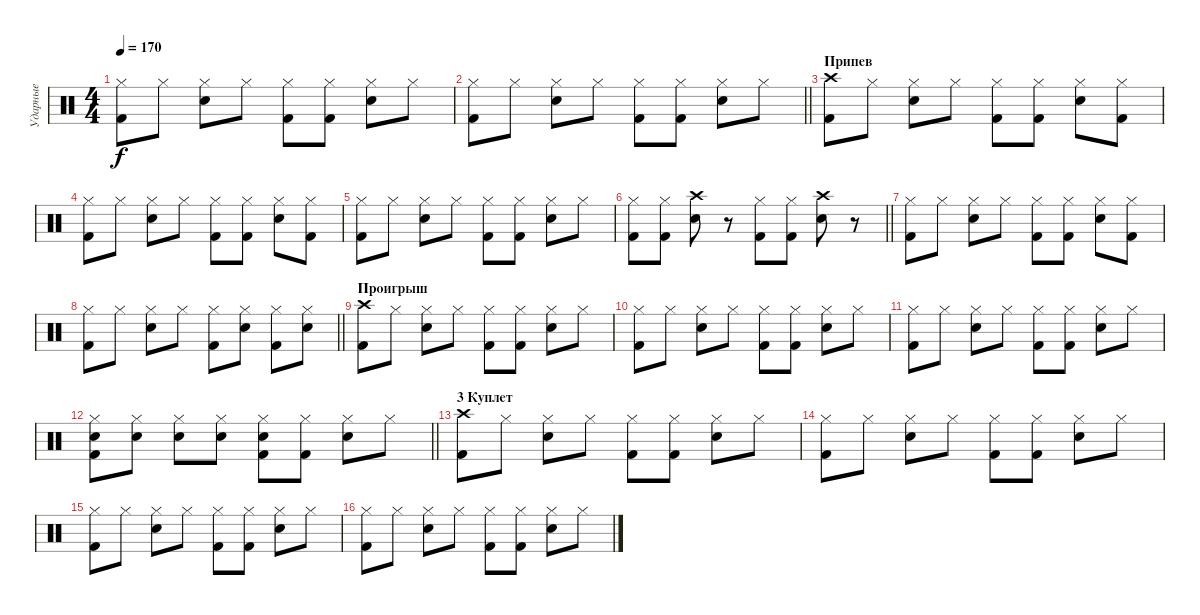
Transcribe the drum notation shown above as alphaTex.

\track ("Ударные" "Ударные") {instrument percussion}
\staff {score}
\articulation defaults
\ts (4 4)
\tempo 170
\clef neutral
\ks c
("Hi-Hat (closed)" "Kick (hit) 2").8{dy f} "Hi-Hat (closed)".8 ("Hi-Hat (closed)" "Snare (hit) 2").8 "Hi-Hat (closed)".8 ("Hi-Hat (closed)" "Kick (hit) 2").8 ("Hi-Hat (closed)" "Kick (hit) 2").8 ("Hi-Hat (closed)" "Snare (hit) 2").8 "Hi-Hat (closed)".8 |
\barLineRight lightlight
("Hi-Hat (closed)" "Kick (hit) 2").8 "Hi-Hat (closed)".8 ("Hi-Hat (closed)" "Snare (hit) 2").8 "Hi-Hat (closed)".8 ("Hi-Hat (closed)" "Kick (hit) 2").8 ("Hi-Hat (closed)" "Kick (hit) 2").8 ("Hi-Hat (closed)" "Snare (hit) 2").8 "Hi-Hat (closed)".8 |
\section ("" "Припев")
("Crash high (hit)" "Kick (hit) 2").8 "Hi-Hat (closed)".8 ("Hi-Hat (closed)" "Snare (hit) 2").8 "Hi-Hat (closed)".8 ("Hi-Hat (closed)" "Kick (hit) 2").8 ("Hi-Hat (closed)" "Kick (hit) 2").8 ("Hi-Hat (closed)" "Snare (hit) 2").8 ("Hi-Hat (closed)" "Kick (hit) 2").8 |
("Hi-Hat (closed)" "Kick (hit) 2").8 "Hi-Hat (closed)".8 ("Hi-Hat (closed)" "Snare (hit) 2").8 "Hi-Hat (closed)".8 ("Hi-Hat (closed)" "Kick (hit) 2").8 ("Hi-Hat (closed)" "Kick (hit) 2").8 ("Hi-Hat (closed)" "Snare (hit) 2").8 ("Hi-Hat (closed)" "Kick (hit) 2").8 |
("Hi-Hat (closed)" "Kick (hit) 2").8 "Hi-Hat (closed)".8 ("Hi-Hat (closed)" "Snare (hit) 2").8 "Hi-Hat (closed)".8 ("Hi-Hat (closed)" "Kick (hit) 2").8 ("Hi-Hat (closed)" "Kick (hit) 2").8 ("Hi-Hat (closed)" "Snare (hit) 2").8 "Hi-Hat (closed)".8 |
\barLineRight lightlight
("Hi-Hat (closed)" "Kick (hit) 2").8 ("Hi-Hat (closed)" "Kick (hit) 2").8 ("Crash high (hit)" "Snare (hit) 2").8 r.8 ("Hi-Hat (closed)" "Kick (hit) 2").8 ("Hi-Hat (closed)" "Kick (hit) 2").8 ("Crash high (hit)" "Snare (hit) 2").8 r.8 |
("Hi-Hat (closed)" "Kick (hit) 2").8 "Hi-Hat (closed)".8 ("Hi-Hat (closed)" "Snare (hit) 2").8 "Hi-Hat (closed)".8 ("Hi-Hat (closed)" "Kick (hit) 2").8 ("Hi-Hat (closed)" "Kick (hit) 2").8 ("Hi-Hat (closed)" "Snare (hit) 2").8 ("Hi-Hat (closed)" "Kick (hit) 2").8 |
\barLineRight lightlight
("Hi-Hat (closed)" "Kick (hit) 2").8 "Hi-Hat (closed)".8 ("Hi-Hat (closed)" "Snare (hit) 2").8 "Hi-Hat (closed)".8 ("Hi-Hat (closed)" "Kick (hit) 2").8 ("Hi-Hat (closed)" "Snare (hit) 2").8 ("Hi-Hat (closed)" "Kick (hit) 2").8 ("Hi-Hat (closed)" "Snare (hit) 2").8 |
\section ("" "Проигрыш")
("Crash high (hit)" "Kick (hit) 2").8 "Hi-Hat (closed)".8 ("Hi-Hat (closed)" "Snare (hit) 2").8 "Hi-Hat (closed)".8 ("Hi-Hat (closed)" "Kick (hit) 2").8 ("Hi-Hat (closed)" "Kick (hit) 2").8 ("Hi-Hat (closed)" "Snare (hit) 2").8 "Hi-Hat (closed)".8 |
("Hi-Hat (closed)" "Kick (hit) 2").8 "Hi-Hat (closed)".8 ("Hi-Hat (closed)" "Snare (hit) 2").8 "Hi-Hat (closed)".8 ("Hi-Hat (closed)" "Kick (hit) 2").8 ("Hi-Hat (closed)" "Kick (hit) 2").8 ("Hi-Hat (closed)" "Snare (hit) 2").8 "Hi-Hat (closed)".8 |
("Hi-Hat (closed)" "Kick (hit) 2").8 "Hi-Hat (closed)".8 ("Hi-Hat (closed)" "Snare (hit) 2").8 "Hi-Hat (closed)".8 ("Hi-Hat (closed)" "Kick (hit) 2").8 ("Hi-Hat (closed)" "Kick (hit) 2").8 ("Hi-Hat (closed)" "Snare (hit) 2").8 "Hi-Hat (closed)".8 |
\barLineRight lightlight
("Hi-Hat (closed)" "Snare (hit) 2" "Kick (hit) 2").8 ("Hi-Hat (closed)" "Snare (hit) 2").8 ("Hi-Hat (closed)" "Snare (hit) 2").8 ("Hi-Hat (closed)" "Snare (hit) 2").8 ("Hi-Hat (closed)" "Snare (hit) 2" "Kick (hit) 2").8 ("Hi-Hat (closed)" "Kick (hit) 2").8 ("Hi-Hat (closed)" "Snare (hit) 2").8 "Hi-Hat (closed)".8 |
\section ("" "3 Куплет")
("Crash high (hit)" "Kick (hit) 2").8 "Hi-Hat (closed)".8 ("Hi-Hat (closed)" "Snare (hit) 2").8 "Hi-Hat (closed)".8 ("Hi-Hat (closed)" "Kick (hit) 2").8 ("Hi-Hat (closed)" "Kick (hit) 2").8 ("Hi-Hat (closed)" "Snare (hit) 2").8 "Hi-Hat (closed)".8 |
("Hi-Hat (closed)" "Kick (hit) 2").8 "Hi-Hat (closed)".8 ("Hi-Hat (closed)" "Snare (hit) 2").8 "Hi-Hat (closed)".8 ("Hi-Hat (closed)" "Kick (hit) 2").8 ("Hi-Hat (closed)" "Kick (hit) 2").8 ("Hi-Hat (closed)" "Snare (hit) 2").8 "Hi-Hat (closed)".8 |
("Hi-Hat (closed)" "Kick (hit) 2").8 "Hi-Hat (closed)".8 ("Hi-Hat (closed)" "Snare (hit) 2").8 "Hi-Hat (closed)".8 ("Hi-Hat (closed)" "Kick (hit) 2").8 ("Hi-Hat (closed)" "Kick (hit) 2").8 ("Hi-Hat (closed)" "Snare (hit) 2").8 "Hi-Hat (closed)".8 |
("Hi-Hat (closed)" "Kick (hit) 2").8 "Hi-Hat (closed)".8 ("Hi-Hat (closed)" "Snare (hit) 2").8 "Hi-Hat (closed)".8 ("Hi-Hat (closed)" "Kick (hit) 2").8 ("Hi-Hat (closed)" "Kick (hit) 2").8 ("Hi-Hat (closed)" "Snare (hit) 2").8 "Hi-Hat (closed)".8
